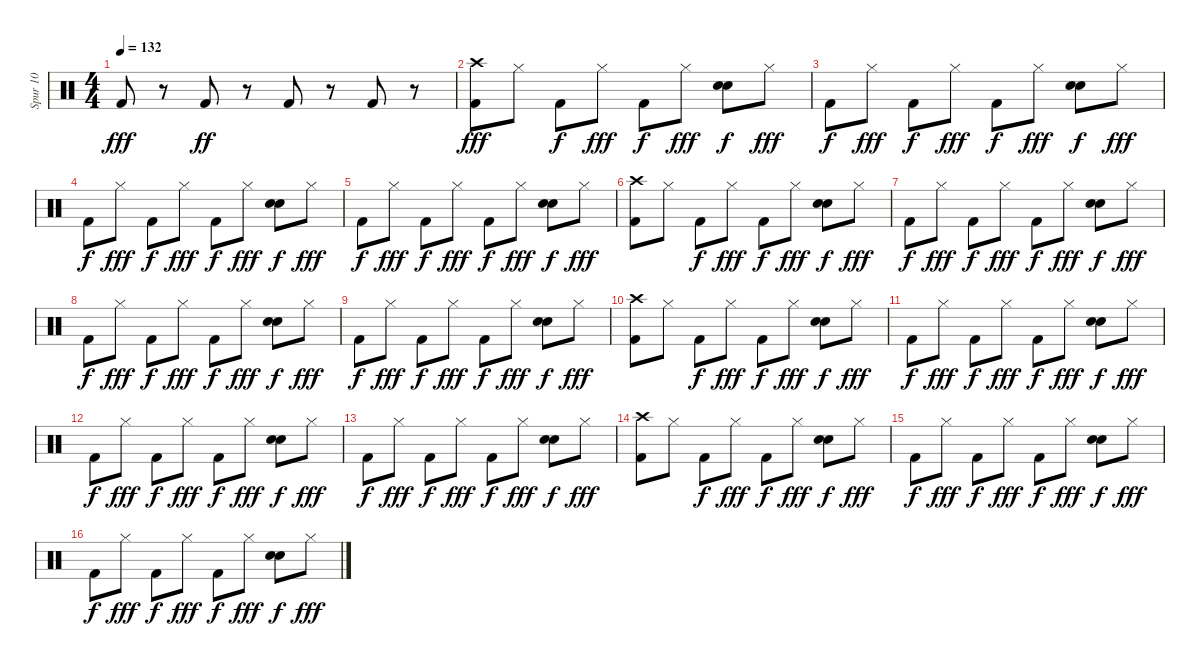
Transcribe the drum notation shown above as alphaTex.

\track ("Spur 10" "Spur 10") {instrument percussion}
\staff {score}
\articulation defaults
\ts (4 4)
\tempo 132
\clef neutral
\ks c "Kick (hit) 2".8{dy fff}
r.8 "Kick (hit) 2".8{dy ff} r.8 "Kick (hit) 2".8 r.8 "Kick (hit) 2".8 r.8 |
("Kick (hit) 2" "Crash high (hit)").8{dy fff} "Hi-Hat (closed)".8 "Kick (hit) 2".8{dy f} "Hi-Hat (closed)".8{dy fff} "Kick (hit) 2".8{dy f} "Hi-Hat (closed)".8{dy fff} ("Electric Snare (hit)" "Hand Clap (hit)").8{dy f} "Hi-Hat (closed)".8{dy fff} |
"Kick (hit) 2".8{dy f} "Hi-Hat (closed)".8{dy fff} "Kick (hit) 2".8{dy f} "Hi-Hat (closed)".8{dy fff} "Kick (hit) 2".8{dy f} "Hi-Hat (closed)".8{dy fff} ("Electric Snare (hit)" "Hand Clap (hit)").8{dy f} "Hi-Hat (closed)".8{dy fff} |
"Kick (hit) 2".8{dy f} "Hi-Hat (closed)".8{dy fff} "Kick (hit) 2".8{dy f} "Hi-Hat (closed)".8{dy fff} "Kick (hit) 2".8{dy f} "Hi-Hat (closed)".8{dy fff} ("Electric Snare (hit)" "Hand Clap (hit)").8{dy f} "Hi-Hat (closed)".8{dy fff} |
"Kick (hit) 2".8{dy f} "Hi-Hat (closed)".8{dy fff} "Kick (hit) 2".8{dy f} "Hi-Hat (closed)".8{dy fff} "Kick (hit) 2".8{dy f} "Hi-Hat (closed)".8{dy fff} ("Electric Snare (hit)" "Hand Clap (hit)").8{dy f} "Hi-Hat (closed)".8{dy fff} |
("Kick (hit) 2" "Crash high (hit)").8 "Hi-Hat (closed)".8 "Kick (hit) 2".8{dy f} "Hi-Hat (closed)".8{dy fff} "Kick (hit) 2".8{dy f} "Hi-Hat (closed)".8{dy fff} ("Electric Snare (hit)" "Hand Clap (hit)").8{dy f} "Hi-Hat (closed)".8{dy fff} |
"Kick (hit) 2".8{dy f} "Hi-Hat (closed)".8{dy fff} "Kick (hit) 2".8{dy f} "Hi-Hat (closed)".8{dy fff} "Kick (hit) 2".8{dy f} "Hi-Hat (closed)".8{dy fff} ("Electric Snare (hit)" "Hand Clap (hit)").8{dy f} "Hi-Hat (closed)".8{dy fff} |
"Kick (hit) 2".8{dy f} "Hi-Hat (closed)".8{dy fff} "Kick (hit) 2".8{dy f} "Hi-Hat (closed)".8{dy fff} "Kick (hit) 2".8{dy f} "Hi-Hat (closed)".8{dy fff} ("Electric Snare (hit)" "Hand Clap (hit)").8{dy f} "Hi-Hat (closed)".8{dy fff} |
"Kick (hit) 2".8{dy f} "Hi-Hat (closed)".8{dy fff} "Kick (hit) 2".8{dy f} "Hi-Hat (closed)".8{dy fff} "Kick (hit) 2".8{dy f} "Hi-Hat (closed)".8{dy fff} ("Electric Snare (hit)" "Hand Clap (hit)").8{dy f} "Hi-Hat (closed)".8{dy fff} |
("Kick (hit) 2" "Crash high (hit)").8 "Hi-Hat (closed)".8 "Kick (hit) 2".8{dy f} "Hi-Hat (closed)".8{dy fff} "Kick (hit) 2".8{dy f} "Hi-Hat (closed)".8{dy fff} ("Electric Snare (hit)" "Hand Clap (hit)").8{dy f} "Hi-Hat (closed)".8{dy fff} |
"Kick (hit) 2".8{dy f} "Hi-Hat (closed)".8{dy fff} "Kick (hit) 2".8{dy f} "Hi-Hat (closed)".8{dy fff} "Kick (hit) 2".8{dy f} "Hi-Hat (closed)".8{dy fff} ("Electric Snare (hit)" "Hand Clap (hit)").8{dy f} "Hi-Hat (closed)".8{dy fff} |
"Kick (hit) 2".8{dy f} "Hi-Hat (closed)".8{dy fff} "Kick (hit) 2".8{dy f} "Hi-Hat (closed)".8{dy fff} "Kick (hit) 2".8{dy f} "Hi-Hat (closed)".8{dy fff} ("Electric Snare (hit)" "Hand Clap (hit)").8{dy f} "Hi-Hat (closed)".8{dy fff} |
"Kick (hit) 2".8{dy f} "Hi-Hat (closed)".8{dy fff} "Kick (hit) 2".8{dy f} "Hi-Hat (closed)".8{dy fff} "Kick (hit) 2".8{dy f} "Hi-Hat (closed)".8{dy fff} ("Electric Snare (hit)" "Hand Clap (hit)").8{dy f} "Hi-Hat (closed)".8{dy fff} |
("Kick (hit) 2" "Crash high (hit)").8 "Hi-Hat (closed)".8 "Kick (hit) 2".8{dy f} "Hi-Hat (closed)".8{dy fff} "Kick (hit) 2".8{dy f} "Hi-Hat (closed)".8{dy fff} ("Electric Snare (hit)" "Hand Clap (hit)").8{dy f} "Hi-Hat (closed)".8{dy fff} |
"Kick (hit) 2".8{dy f} "Hi-Hat (closed)".8{dy fff} "Kick (hit) 2".8{dy f} "Hi-Hat (closed)".8{dy fff} "Kick (hit) 2".8{dy f} "Hi-Hat (closed)".8{dy fff} ("Electric Snare (hit)" "Hand Clap (hit)").8{dy f} "Hi-Hat (closed)".8{dy fff} |
"Kick (hit) 2".8{dy f} "Hi-Hat (closed)".8{dy fff} "Kick (hit) 2".8{dy f} "Hi-Hat (closed)".8{dy fff} "Kick (hit) 2".8{dy f} "Hi-Hat (closed)".8{dy fff} ("Electric Snare (hit)" "Hand Clap (hit)").8{dy f} "Hi-Hat (closed)".8{dy fff}
